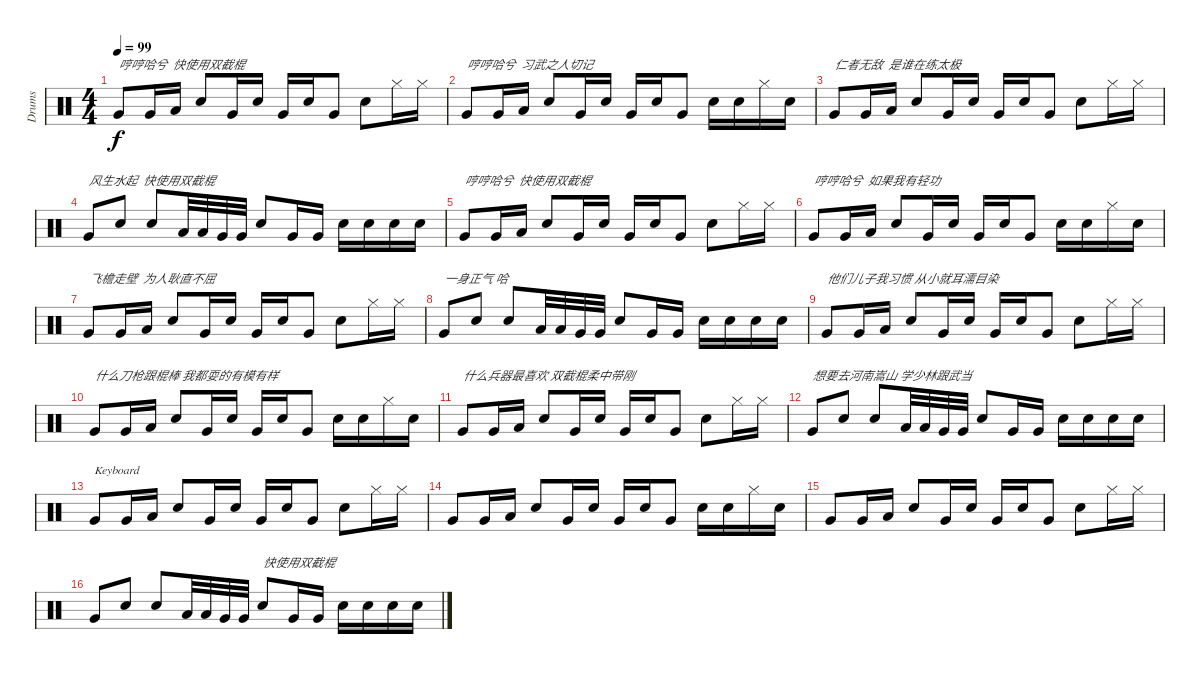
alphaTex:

\track ("Drums" "Drums") {instrument percussion}
\staff {score}
\articulation defaults
\ts (4 4)
\tempo 99
\clef neutral
\ks c "Very Low Tom (hit)".8{txt "哼哼哈兮  快使用双截棍" dy f} "Very Low Tom (hit)".16 "Low Floor Tom (hit)".16 "Snare (hit) 2".8 "Very Low Tom (hit)".16 "Snare (hit) 2".16 "Very Low Tom (hit)".16 "Snare (hit) 2".16 "Very Low Tom (hit)".8 "Snare (hit) 2".8 "Hi-Hat (closed)".16 "Hi-Hat (closed)".16
|
"Very Low Tom (hit)".8{txt "哼哼哈兮  习武之人切记"} "Very Low Tom (hit)".16 "Low Floor Tom (hit)".16 "Snare (hit) 2".8 "Very Low Tom (hit)".16 "Snare (hit) 2".16 "Very Low Tom (hit)".16 "Snare (hit) 2".16 "Very Low Tom (hit)".8 "Snare (hit) 2".16 "Snare (hit) 2".16 "Hi-Hat (closed)".16 "Snare (hit) 2".16 |
"Very Low Tom (hit)".8{txt "仁者无敌  是谁在练太极"} "Very Low Tom (hit)".16 "Low Floor Tom (hit)".16 "Snare (hit) 2".8 "Very Low Tom (hit)".16 "Snare (hit) 2".16 "Very Low Tom (hit)".16 "Snare (hit) 2".16 "Very Low Tom (hit)".8 "Snare (hit) 2".8 "Hi-Hat (closed)".16 "Hi-Hat (closed)".16 |
"Very Low Tom (hit)".8{txt "风生水起  快使用双截棍 "} "Snare (hit) 2".8 "Snare (hit) 2".8 "Low Tom (hit)".32 "Low Tom (hit)".32 "Very Low Tom (hit)".32 "Very Low Tom (hit)".32 "Snare (hit) 2".8 "Very Low Tom (hit)".16 "Very Low Tom (hit)".16 "Snare (hit) 2".16 "Snare (hit) 2".16 "Snare (hit) 2".16 "Snare (hit) 2".16 |
"Very Low Tom (hit)".8{txt "哼哼哈兮  快使用双截棍"} "Very Low Tom (hit)".16 "Low Floor Tom (hit)".16 "Snare (hit) 2".8 "Very Low Tom (hit)".16 "Snare (hit) 2".16 "Very Low Tom (hit)".16 "Snare (hit) 2".16 "Very Low Tom (hit)".8 "Snare (hit) 2".8 "Hi-Hat (closed)".16 "Hi-Hat (closed)".16 |
"Very Low Tom (hit)".8{txt "哼哼哈兮  如果我有轻功"} "Very Low Tom (hit)".16 "Low Floor Tom (hit)".16 "Snare (hit) 2".8 "Very Low Tom (hit)".16 "Snare (hit) 2".16 "Very Low Tom (hit)".16 "Snare (hit) 2".16 "Very Low Tom (hit)".8 "Snare (hit) 2".16 "Snare (hit) 2".16 "Hi-Hat (closed)".16 "Snare (hit) 2".16 |
"Very Low Tom (hit)".8{txt "飞檐走壁  为人耿直不屈"} "Very Low Tom (hit)".16 "Low Floor Tom (hit)".16 "Snare (hit) 2".8 "Very Low Tom (hit)".16 "Snare (hit) 2".16 "Very Low Tom (hit)".16 "Snare (hit) 2".16 "Very Low Tom (hit)".8 "Snare (hit) 2".8 "Hi-Hat (closed)".16 "Hi-Hat (closed)".16 |
"Very Low Tom (hit)".8{txt "一身正气 哈"} "Snare (hit) 2".8 "Snare (hit) 2".8 "Low Tom (hit)".32 "Low Tom (hit)".32 "Very Low Tom (hit)".32 "Very Low Tom (hit)".32 "Snare (hit) 2".8 "Very Low Tom (hit)".16 "Very Low Tom (hit)".16 "Snare (hit) 2".16 "Snare (hit) 2".16 "Snare (hit) 2".16 "Snare (hit) 2".16 |
"Very Low Tom (hit)".8{txt "他们儿子我习惯 从小就耳濡目染"} "Very Low Tom (hit)".16 "Low Floor Tom (hit)".16 "Snare (hit) 2".8 "Very Low Tom (hit)".16 "Snare (hit) 2".16 "Very Low Tom (hit)".16 "Snare (hit) 2".16 "Very Low Tom (hit)".8 "Snare (hit) 2".8 "Hi-Hat (closed)".16 "Hi-Hat (closed)".16 |
"Very Low Tom (hit)".8{txt "什么刀枪跟棍棒 我都耍的有模有样"} "Very Low Tom (hit)".16 "Low Floor Tom (hit)".16 "Snare (hit) 2".8 "Very Low Tom (hit)".16 "Snare (hit) 2".16 "Very Low Tom (hit)".16 "Snare (hit) 2".16 "Very Low Tom (hit)".8 "Snare (hit) 2".16 "Snare (hit) 2".16 "Hi-Hat (closed)".16 "Snare (hit) 2".16 |
"Very Low Tom (hit)".8{txt "什么兵器最喜欢 双截棍柔中带刚"} "Very Low Tom (hit)".16 "Low Floor Tom (hit)".16 "Snare (hit) 2".8 "Very Low Tom (hit)".16 "Snare (hit) 2".16 "Very Low Tom (hit)".16 "Snare (hit) 2".16 "Very Low Tom (hit)".8 "Snare (hit) 2".8 "Hi-Hat (closed)".16 "Hi-Hat (closed)".16 |
"Very Low Tom (hit)".8{txt "想要去河南嵩山 学少林跟武当"} "Snare (hit) 2".8 "Snare (hit) 2".8 "Low Tom (hit)".32 "Low Tom (hit)".32 "Very Low Tom (hit)".32 "Very Low Tom (hit)".32 "Snare (hit) 2".8 "Very Low Tom (hit)".16 "Very Low Tom (hit)".16 "Snare (hit) 2".16 "Snare (hit) 2".16 "Snare (hit) 2".16 "Snare (hit) 2".16 |
"Very Low Tom (hit)".8{txt "Keyboard"} "Very Low Tom (hit)".16 "Low Floor Tom (hit)".16 "Snare (hit) 2".8 "Very Low Tom (hit)".16 "Snare (hit) 2".16 "Very Low Tom (hit)".16 "Snare (hit) 2".16 "Very Low Tom (hit)".8 "Snare (hit) 2".8 "Hi-Hat (closed)".16 "Hi-Hat (closed)".16 |
"Very Low Tom (hit)".8 "Very Low Tom (hit)".16 "Low Floor Tom (hit)".16 "Snare (hit) 2".8 "Very Low Tom (hit)".16 "Snare (hit) 2".16 "Very Low Tom (hit)".16 "Snare (hit) 2".16 "Very Low Tom (hit)".8 "Snare (hit) 2".16 "Snare (hit) 2".16 "Hi-Hat (closed)".16 "Snare (hit) 2".16 |
"Very Low Tom (hit)".8 "Very Low Tom (hit)".16 "Low Floor Tom (hit)".16 "Snare (hit) 2".8 "Very Low Tom (hit)".16 "Snare (hit) 2".16 "Very Low Tom (hit)".16 "Snare (hit) 2".16 "Very Low Tom (hit)".8 "Snare (hit) 2".8 "Hi-Hat (closed)".16 "Hi-Hat (closed)".16 |
"Very Low Tom (hit)".8 "Snare (hit) 2".8 "Snare (hit) 2".8 "Low Tom (hit)".32 "Low Tom (hit)".32 "Very Low Tom (hit)".32 "Very Low Tom (hit)".32 "Snare (hit) 2".8{txt "快使用双截棍"} "Very Low Tom (hit)".16 "Very Low Tom (hit)".16 "Snare (hit) 2".16 "Snare (hit) 2".16 "Snare (hit) 2".16 "Snare (hit) 2".16
